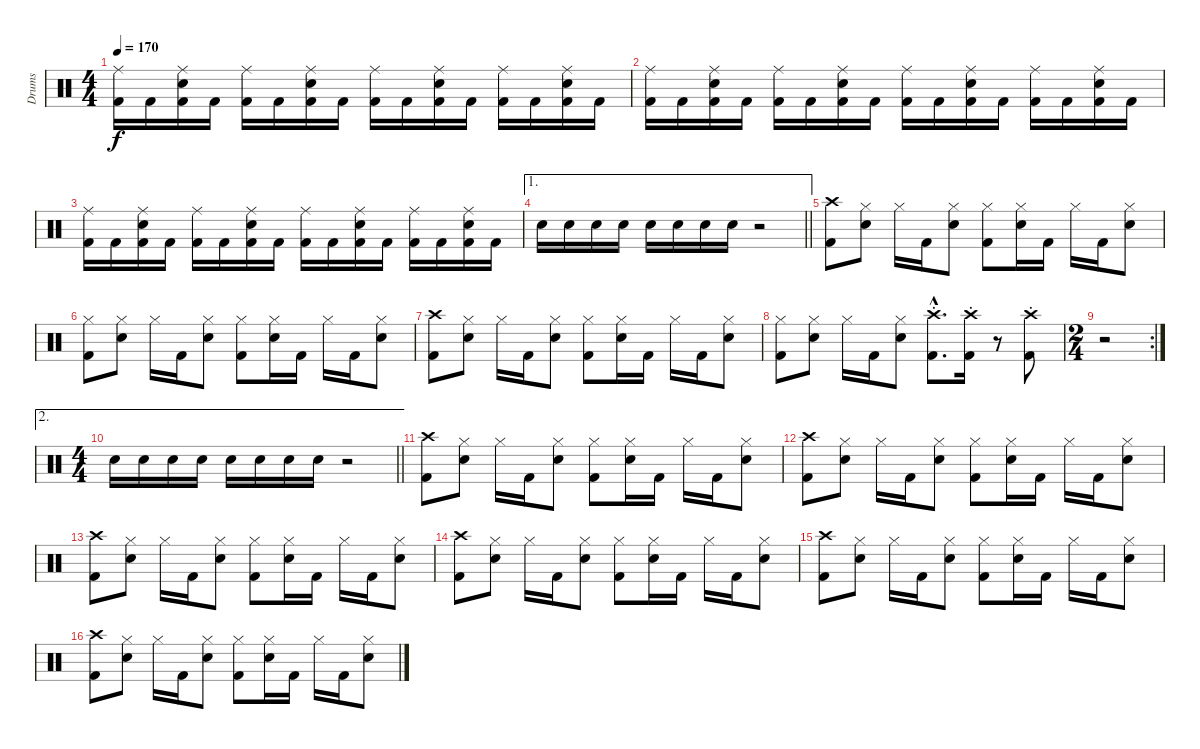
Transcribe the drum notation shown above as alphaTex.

\track ("Drums" "Drums") {instrument percussion}
\staff {score}
\articulation defaults
\ts (4 4)
\tempo 170
\clef neutral
\ks c
("Ride (middle)" "Kick (hit) 2").16{dy f} "Kick (hit) 2".16 ("Ride (middle)" "Snare (hit) 2" "Kick (hit) 2").16 "Kick (hit) 2".16 ("Ride (middle)" "Kick (hit) 2").16 "Kick (hit) 2".16 ("Ride (middle)" "Snare (hit) 2" "Kick (hit) 2").16 "Kick (hit) 2".16 ("Ride (middle)" "Kick (hit) 2").16 "Kick (hit) 2".16 ("Ride (middle)" "Snare (hit) 2" "Kick (hit) 2").16 "Kick (hit) 2".16 ("Ride (middle)" "Kick (hit) 2").16 "Kick (hit) 2".16 ("Ride (middle)" "Snare (hit) 2" "Kick (hit) 2").16 "Kick (hit) 2".16 |
("Ride (middle)" "Kick (hit) 2").16 "Kick (hit) 2".16 ("Ride (middle)" "Snare (hit) 2" "Kick (hit) 2").16 "Kick (hit) 2".16 ("Ride (middle)" "Kick (hit) 2").16 "Kick (hit) 2".16 ("Ride (middle)" "Snare (hit) 2" "Kick (hit) 2").16 "Kick (hit) 2".16 ("Ride (middle)" "Kick (hit) 2").16 "Kick (hit) 2".16 ("Ride (middle)" "Snare (hit) 2" "Kick (hit) 2").16 "Kick (hit) 2".16 ("Ride (middle)" "Kick (hit) 2").16 "Kick (hit) 2".16 ("Ride (middle)" "Snare (hit) 2" "Kick (hit) 2").16 "Kick (hit) 2".16 |
("Ride (middle)" "Kick (hit) 2").16 "Kick (hit) 2".16 ("Ride (middle)" "Snare (hit) 2" "Kick (hit) 2").16 "Kick (hit) 2".16 ("Ride (middle)" "Kick (hit) 2").16 "Kick (hit) 2".16 ("Ride (middle)" "Snare (hit) 2" "Kick (hit) 2").16 "Kick (hit) 2".16 ("Ride (middle)" "Kick (hit) 2").16 "Kick (hit) 2".16 ("Ride (middle)" "Snare (hit) 2" "Kick (hit) 2").16 "Kick (hit) 2".16 ("Ride (middle)" "Kick (hit) 2").16 "Kick (hit) 2".16 ("Ride (middle)" "Snare (hit) 2" "Kick (hit) 2").16 "Kick (hit) 2".16 |
\ae 1
\barLineRight lightlight "Snare (hit) 2".16 "Snare (hit) 2".16 "Snare (hit) 2".16 "Snare (hit) 2".16 "Snare (hit) 2".16 "Snare (hit) 2".16 "Snare (hit) 2".16 "Snare (hit) 2".16
r.2 |
("Crash high (hit)" "Kick (hit) 2").8 ("Hi-Hat (closed)" "Snare (hit) 2").8 "Hi-Hat (closed)".16 "Kick (hit) 2".16 ("Hi-Hat (closed)" "Snare (hit) 2").8 ("Hi-Hat (closed)" "Kick (hit) 2").8 ("Hi-Hat (closed)" "Snare (hit) 2").16 "Kick (hit) 2".16 "Hi-Hat (closed)".16 "Kick (hit) 2".16 ("Hi-Hat (closed)" "Snare (hit) 2").8 |
("Hi-Hat (closed)" "Kick (hit) 2").8 ("Hi-Hat (closed)" "Snare (hit) 2").8 "Hi-Hat (closed)".16 "Kick (hit) 2".16 ("Hi-Hat (closed)" "Snare (hit) 2").8 ("Hi-Hat (closed)" "Kick (hit) 2").8 ("Hi-Hat (closed)" "Snare (hit) 2").16 "Kick (hit) 2".16 "Hi-Hat (closed)".16 "Kick (hit) 2".16 ("Hi-Hat (closed)" "Snare (hit) 2").8 |
("Crash high (hit)" "Kick (hit) 2").8 ("Hi-Hat (closed)" "Snare (hit) 2").8 "Hi-Hat (closed)".16 "Kick (hit) 2".16 ("Hi-Hat (closed)" "Snare (hit) 2").8 ("Hi-Hat (closed)" "Kick (hit) 2").8 ("Hi-Hat (closed)" "Snare (hit) 2").16 "Kick (hit) 2".16 "Hi-Hat (closed)".16 "Kick (hit) 2".16 ("Hi-Hat (closed)" "Snare (hit) 2").8 |
("Hi-Hat (closed)" "Kick (hit) 2").8 ("Hi-Hat (closed)" "Snare (hit) 2").8 "Hi-Hat (closed)".16 "Kick (hit) 2".16 ("Hi-Hat (closed)" "Snare (hit) 2").8 ("Crash high (hit)"{hac st} "Kick (hit) 2"{hac}).8{d} ("Crash high (hit)"{st} "Kick (hit) 2").16 r.8 ("Crash high (hit)"{st} "Kick (hit) 2").8 |
\rc 2
\ts (2 4)
r.2 |
\ae 2
\ts (4 4)
\barLineRight lightlight "Snare (hit) 2".16 "Snare (hit) 2".16 "Snare (hit) 2".16 "Snare (hit) 2".16 "Snare (hit) 2".16 "Snare (hit) 2".16 "Snare (hit) 2".16 "Snare (hit) 2".16
r.2 |
("Crash high (hit)" "Kick (hit) 2").8 ("Hi-Hat (closed)" "Snare (hit) 2").8 "Hi-Hat (closed)".16 "Kick (hit) 2".16 ("Hi-Hat (closed)" "Snare (hit) 2").8 ("Hi-Hat (closed)" "Kick (hit) 2").8 ("Hi-Hat (closed)" "Snare (hit) 2").16 "Kick (hit) 2".16 "Hi-Hat (closed)".16 "Kick (hit) 2".16 ("Hi-Hat (closed)" "Snare (hit) 2").8 |
("Crash high (hit)" "Kick (hit) 2").8 ("Hi-Hat (closed)" "Snare (hit) 2").8 "Hi-Hat (closed)".16 "Kick (hit) 2".16 ("Hi-Hat (closed)" "Snare (hit) 2").8 ("Hi-Hat (closed)" "Kick (hit) 2").8 ("Hi-Hat (closed)" "Snare (hit) 2").16 "Kick (hit) 2".16 "Hi-Hat (closed)".16 "Kick (hit) 2".16 ("Hi-Hat (closed)" "Snare (hit) 2").8 |
("Crash high (hit)" "Kick (hit) 2").8 ("Hi-Hat (closed)" "Snare (hit) 2").8 "Hi-Hat (closed)".16 "Kick (hit) 2".16 ("Hi-Hat (closed)" "Snare (hit) 2").8 ("Hi-Hat (closed)" "Kick (hit) 2").8 ("Hi-Hat (closed)" "Snare (hit) 2").16 "Kick (hit) 2".16 "Hi-Hat (closed)".16 "Kick (hit) 2".16 ("Hi-Hat (closed)" "Snare (hit) 2").8 |
("Crash high (hit)" "Kick (hit) 2").8 ("Hi-Hat (closed)" "Snare (hit) 2").8 "Hi-Hat (closed)".16 "Kick (hit) 2".16 ("Hi-Hat (closed)" "Snare (hit) 2").8 ("Hi-Hat (closed)" "Kick (hit) 2").8 ("Hi-Hat (closed)" "Snare (hit) 2").16 "Kick (hit) 2".16 "Hi-Hat (closed)".16 "Kick (hit) 2".16 ("Hi-Hat (closed)" "Snare (hit) 2").8 |
("Crash high (hit)" "Kick (hit) 2").8 ("Hi-Hat (closed)" "Snare (hit) 2").8 "Hi-Hat (closed)".16 "Kick (hit) 2".16 ("Hi-Hat (closed)" "Snare (hit) 2").8 ("Hi-Hat (closed)" "Kick (hit) 2").8 ("Hi-Hat (closed)" "Snare (hit) 2").16 "Kick (hit) 2".16 "Hi-Hat (closed)".16 "Kick (hit) 2".16 ("Hi-Hat (closed)" "Snare (hit) 2").8 |
("Crash high (hit)" "Kick (hit) 2").8 ("Hi-Hat (closed)" "Snare (hit) 2").8 "Hi-Hat (closed)".16 "Kick (hit) 2".16 ("Hi-Hat (closed)" "Snare (hit) 2").8 ("Hi-Hat (closed)" "Kick (hit) 2").8 ("Hi-Hat (closed)" "Snare (hit) 2").16 "Kick (hit) 2".16 "Hi-Hat (closed)".16 "Kick (hit) 2".16 ("Hi-Hat (closed)" "Snare (hit) 2").8
